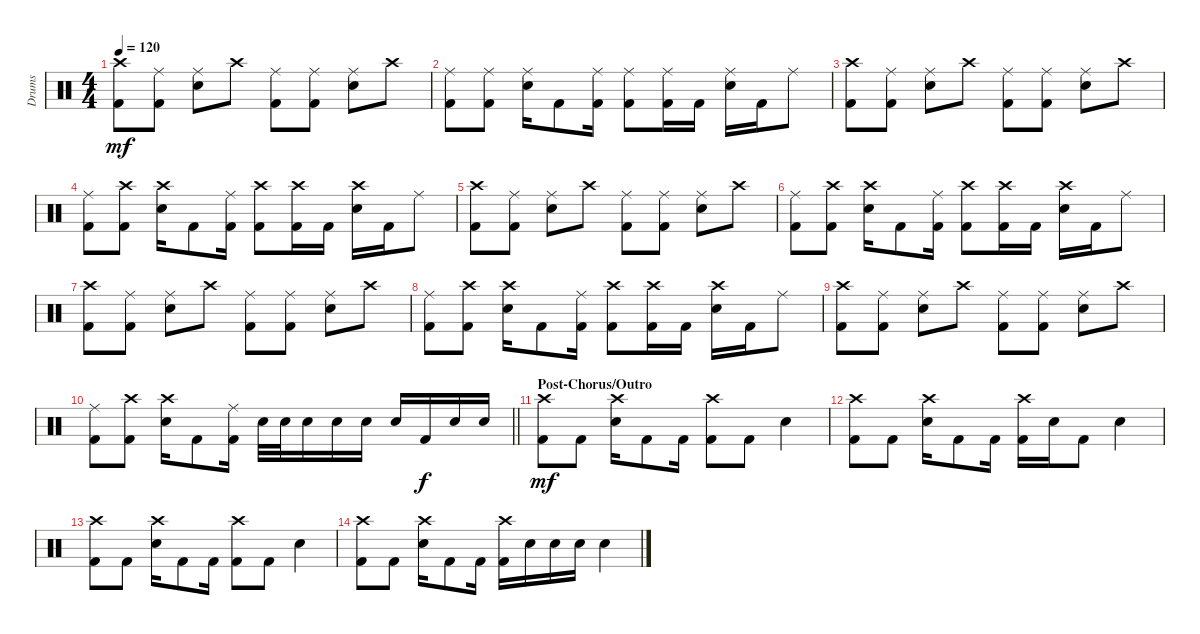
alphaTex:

\track ("Drums" "Drums") {instrument percussion}
\staff {score}
\articulation defaults
\ts (4 4)
\tempo 120
\clef neutral
\ks c
("Crash high (hit)" "Kick (hit) 2").8{dy mf} ("Ride (middle)" "Kick (hit) 2").8 ("Ride (middle)" "Electric Snare (hit)").8 "Crash high (hit)".8 ("Ride (middle)" "Kick (hit) 2").8 ("Ride (middle)" "Kick (hit) 2").8 ("Ride (middle)" "Electric Snare (hit)").8 "Crash high (hit)".8 |
("Ride (middle)" "Kick (hit) 2").8 ("Ride (middle)" "Kick (hit) 2").8 ("Ride (middle)" "Electric Snare (hit)").16 "Kick (hit) 2".8 ("Ride (middle)" "Kick (hit) 2").16 ("Ride (middle)" "Kick (hit) 2").8 ("Ride (middle)" "Kick (hit) 2").16 "Kick (hit) 2".16 ("Ride (middle)" "Electric Snare (hit)").16 "Kick (hit) 2".16 "Ride (middle)".8 |
("Crash high (hit)" "Kick (hit) 2").8 ("Ride (middle)" "Kick (hit) 2").8 ("Ride (middle)" "Electric Snare (hit)").8 "Crash high (hit)".8 ("Ride (middle)" "Kick (hit) 2").8 ("Ride (middle)" "Kick (hit) 2").8 ("Ride (middle)" "Electric Snare (hit)").8 "Crash high (hit)".8 |
("Ride (middle)" "Kick (hit) 2").8 ("Crash high (hit)" "Kick (hit) 2").8 ("Crash high (hit)" "Electric Snare (hit)").16 "Kick (hit) 2".8 ("Ride (middle)" "Kick (hit) 2").16 ("Crash high (hit)" "Kick (hit) 2").8 ("Crash high (hit)" "Kick (hit) 2").16 "Kick (hit) 2".16 ("Crash high (hit)" "Electric Snare (hit)").16 "Kick (hit) 2".16 "Ride (middle)".8 |
("Crash high (hit)" "Kick (hit) 2").8 ("Ride (middle)" "Kick (hit) 2").8 ("Ride (middle)" "Electric Snare (hit)").8 "Crash high (hit)".8 ("Ride (middle)" "Kick (hit) 2").8 ("Ride (middle)" "Kick (hit) 2").8 ("Ride (middle)" "Electric Snare (hit)").8 "Crash high (hit)".8 |
("Ride (middle)" "Kick (hit) 2").8 ("Crash high (hit)" "Kick (hit) 2").8 ("Crash high (hit)" "Electric Snare (hit)").16 "Kick (hit) 2".8 ("Ride (middle)" "Kick (hit) 2").16 ("Crash high (hit)" "Kick (hit) 2").8 ("Crash high (hit)" "Kick (hit) 2").16 "Kick (hit) 2".16 ("Crash high (hit)" "Electric Snare (hit)").16 "Kick (hit) 2".16 "Ride (middle)".8 |
("Crash high (hit)" "Kick (hit) 2").8 ("Ride (middle)" "Kick (hit) 2").8 ("Ride (middle)" "Electric Snare (hit)").8 "Crash high (hit)".8 ("Ride (middle)" "Kick (hit) 2").8 ("Ride (middle)" "Kick (hit) 2").8 ("Ride (middle)" "Electric Snare (hit)").8 "Crash high (hit)".8 |
("Ride (middle)" "Kick (hit) 2").8 ("Crash high (hit)" "Kick (hit) 2").8 ("Crash high (hit)" "Electric Snare (hit)").16 "Kick (hit) 2".8 ("Ride (middle)" "Kick (hit) 2").16 ("Crash high (hit)" "Kick (hit) 2").8 ("Crash high (hit)" "Kick (hit) 2").16 "Kick (hit) 2".16 ("Crash high (hit)" "Electric Snare (hit)").16 "Kick (hit) 2".16 "Ride (middle)".8 |
("Crash high (hit)" "Kick (hit) 2").8 ("Ride (middle)" "Kick (hit) 2").8 ("Ride (middle)" "Electric Snare (hit)").8 "Crash high (hit)".8 ("Ride (middle)" "Kick (hit) 2").8 ("Ride (middle)" "Kick (hit) 2").8 ("Ride (middle)" "Electric Snare (hit)").8 "Crash high (hit)".8 |
\barLineRight lightlight
("Ride (middle)" "Kick (hit) 2").8 ("Crash high (hit)" "Kick (hit) 2").8 ("Crash high (hit)" "Electric Snare (hit)").16 "Kick (hit) 2".8 ("Ride (middle)" "Kick (hit) 2").16 "Electric Snare (hit)".32 "Electric Snare (hit)".32 "Electric Snare (hit)".16 "Electric Snare (hit)".16 "Electric Snare (hit)".16 "Electric Snare (hit)".16 "Kick (hit) 2".16{dy f} "Electric Snare (hit)".16 "Electric Snare (hit)".16 |
\section ("" "Post-Chorus/Outro")
("Crash high (hit)" "Kick (hit) 2").8{dy mf} "Kick (hit) 2".8 ("Crash high (hit)" "Electric Snare (hit)").16 "Kick (hit) 2".8 "Kick (hit) 2".16 ("Crash high (hit)" "Kick (hit) 2").8 "Kick (hit) 2".8 "Electric Snare (hit)".4 |
("Crash high (hit)" "Kick (hit) 2").8 "Kick (hit) 2".8 ("Crash high (hit)" "Electric Snare (hit)").16 "Kick (hit) 2".8 "Kick (hit) 2".16 ("Crash high (hit)" "Kick (hit) 2").16 "Electric Snare (hit)".16 "Kick (hit) 2".8 "Electric Snare (hit)".4 |
("Crash high (hit)" "Kick (hit) 2").8 "Kick (hit) 2".8 ("Crash high (hit)" "Electric Snare (hit)").16 "Kick (hit) 2".8 "Kick (hit) 2".16 ("Crash high (hit)" "Kick (hit) 2").8 "Kick (hit) 2".8 "Electric Snare (hit)".4 |
("Crash high (hit)" "Kick (hit) 2").8 "Kick (hit) 2".8 ("Crash high (hit)" "Electric Snare (hit)").16 "Kick (hit) 2".8 "Kick (hit) 2".16 ("Crash high (hit)" "Kick (hit) 2").16 "Electric Snare (hit)".16 "Electric Snare (hit)".16 "Electric Snare (hit)".16 "Electric Snare (hit)".4
